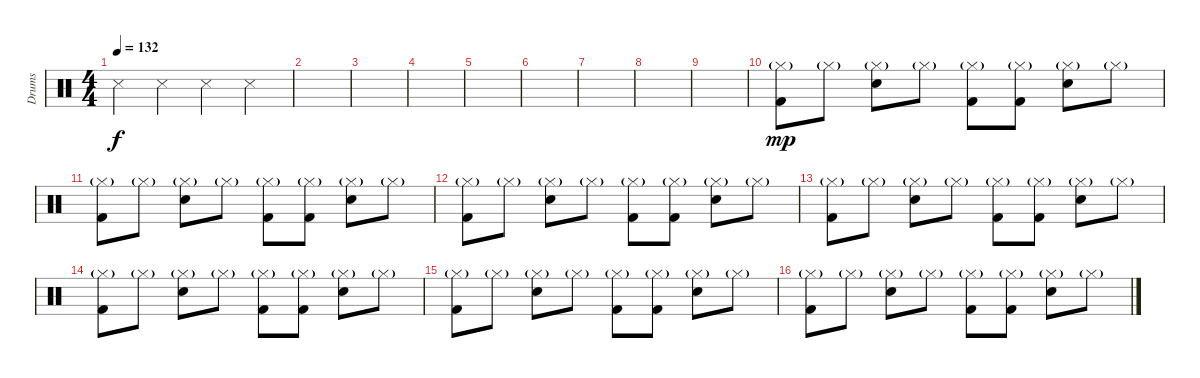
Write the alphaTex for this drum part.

\track ("Drums" "Drums") {instrument percussion}
\staff {score}
\articulation defaults
\ts (4 4)
\tempo 132
\clef neutral
\ks c "Snare (side stick) 3".4{dy f} "Snare (side stick) 3".4 "Snare (side stick) 3".4 "Snare (side stick) 3".4
|
|
|
|
|
|
|
|
|
("Hi-Hat (closed)"{g} "Kick (hit) 2").8{dy mp} "Hi-Hat (closed)"{g}.8 ("Hi-Hat (closed)"{g} "Snare (hit) 2").8 "Hi-Hat (closed)"{g}.8 ("Hi-Hat (closed)"{g} "Kick (hit) 2").8 ("Hi-Hat (closed)"{g} "Kick (hit) 2").8 ("Hi-Hat (closed)"{g} "Snare (hit) 2").8 "Hi-Hat (closed)"{g}.8 |
("Hi-Hat (closed)"{g} "Kick (hit) 2").8 "Hi-Hat (closed)"{g}.8 ("Hi-Hat (closed)"{g} "Snare (hit) 2").8 "Hi-Hat (closed)"{g}.8 ("Hi-Hat (closed)"{g} "Kick (hit) 2").8 ("Hi-Hat (closed)"{g} "Kick (hit) 2").8 ("Hi-Hat (closed)"{g} "Snare (hit) 2").8 "Hi-Hat (closed)"{g}.8 |
("Hi-Hat (closed)"{g} "Kick (hit) 2").8 "Hi-Hat (closed)"{g}.8 ("Hi-Hat (closed)"{g} "Snare (hit) 2").8 "Hi-Hat (closed)"{g}.8 ("Hi-Hat (closed)"{g} "Kick (hit) 2").8 ("Hi-Hat (closed)"{g} "Kick (hit) 2").8 ("Hi-Hat (closed)"{g} "Snare (hit) 2").8 "Hi-Hat (closed)"{g}.8 |
("Hi-Hat (closed)"{g} "Kick (hit) 2").8 "Hi-Hat (closed)"{g}.8 ("Hi-Hat (closed)"{g} "Snare (hit) 2").8 "Hi-Hat (closed)"{g}.8 ("Hi-Hat (closed)"{g} "Kick (hit) 2").8 ("Hi-Hat (closed)"{g} "Kick (hit) 2").8 ("Hi-Hat (closed)"{g} "Snare (hit) 2").8 "Hi-Hat (closed)"{g}.8 |
("Hi-Hat (closed)"{g} "Kick (hit) 2").8 "Hi-Hat (closed)"{g}.8 ("Hi-Hat (closed)"{g} "Snare (hit) 2").8 "Hi-Hat (closed)"{g}.8 ("Hi-Hat (closed)"{g} "Kick (hit) 2").8 ("Hi-Hat (closed)"{g} "Kick (hit) 2").8 ("Hi-Hat (closed)"{g} "Snare (hit) 2").8 "Hi-Hat (closed)"{g}.8 |
("Hi-Hat (closed)"{g} "Kick (hit) 2").8 "Hi-Hat (closed)"{g}.8 ("Hi-Hat (closed)"{g} "Snare (hit) 2").8 "Hi-Hat (closed)"{g}.8 ("Hi-Hat (closed)"{g} "Kick (hit) 2").8 ("Hi-Hat (closed)"{g} "Kick (hit) 2").8 ("Hi-Hat (closed)"{g} "Snare (hit) 2").8 "Hi-Hat (closed)"{g}.8 |
("Hi-Hat (closed)"{g} "Kick (hit) 2").8 "Hi-Hat (closed)"{g}.8 ("Hi-Hat (closed)"{g} "Snare (hit) 2").8 "Hi-Hat (closed)"{g}.8 ("Hi-Hat (closed)"{g} "Kick (hit) 2").8 ("Hi-Hat (closed)"{g} "Kick (hit) 2").8 ("Hi-Hat (closed)"{g} "Snare (hit) 2").8 "Hi-Hat (closed)"{g}.8
